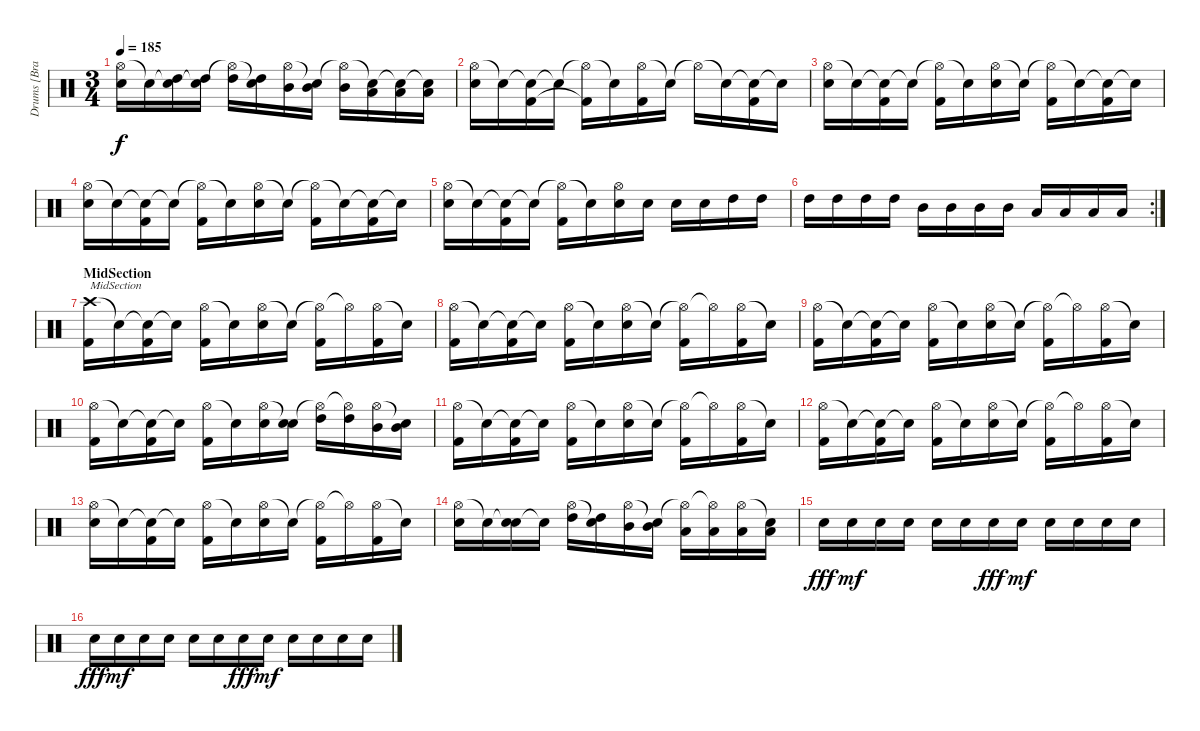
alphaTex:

\track ("Drums [Brann Dailor]" "Drums [Bra") {instrument percussion}
\staff {score}
\articulation defaults
\ts (3 4)
\tempo 185
\clef neutral
\ks c
("Hi-Hat (open)" "Electric Snare (hit)").16{dy f} "Snare (hit)"{t}.16 ("Snare (hit)"{t} "High Tom (hit)").16 ("Snare (hit)"{t} "High Tom (hit)").16 ("Hi-Hat (open)"{t} "High Tom (hit)").16 ("Snare (hit)"{t} "High Tom (hit)").16 ("Hi-Hat (open)" "Mid Tom (hit)").16 ("Snare (hit)"{t} "Mid Tom (hit)").16 ("Hi-Hat (open)"{t} "Mid Tom (hit)").16 ("Snare (hit)"{t} "Low Tom (hit)").16 ("Snare (hit)"{t} "Low Tom (hit)").16 ("Snare (hit)"{t} "Low Tom (hit)").16 |
("Hi-Hat (open)" "Electric Snare (hit)").16 "Snare (hit)"{t}.16 ("Snare (hit)"{t} "Kick (hit) 2").16 "Snare (hit)"{t}.16 ("Hi-Hat (open)"{t} "Kick (hit) 2"{t}).16 "Snare (hit)"{t}.16 ("Hi-Hat (open)" "Kick (hit) 2").16 "Snare (hit)"{t}.16 "Hi-Hat (open)"{t}.16 "Snare (hit)"{t}.16 ("Snare (hit)"{t} "Kick (hit) 2").16 "Snare (hit)"{t}.16 |
("Hi-Hat (open)" "Electric Snare (hit)").16 "Snare (hit)"{t}.16 ("Snare (hit)"{t} "Kick (hit) 2").16 "Snare (hit)"{t}.16 ("Hi-Hat (open)"{t} "Kick (hit) 2").16 "Snare (hit)"{t}.16 ("Hi-Hat (open)" "Electric Snare (hit)").16 "Snare (hit)"{t}.16 ("Hi-Hat (open)"{t} "Kick (hit) 2").16 "Snare (hit)"{t}.16 ("Snare (hit)"{t} "Kick (hit) 2").16 "Snare (hit)"{t}.16 |
("Hi-Hat (open)" "Electric Snare (hit)").16 "Snare (hit)"{t}.16 ("Snare (hit)"{t} "Kick (hit) 2").16 "Snare (hit)"{t}.16 ("Hi-Hat (open)"{t} "Kick (hit) 2").16 "Snare (hit)"{t}.16 ("Hi-Hat (open)" "Electric Snare (hit)").16 "Snare (hit)"{t}.16 ("Hi-Hat (open)"{t} "Kick (hit) 2").16 "Snare (hit)"{t}.16 ("Snare (hit)"{t} "Kick (hit) 2").16 "Snare (hit)"{t}.16 |
("Hi-Hat (open)" "Electric Snare (hit)").16 "Snare (hit)"{t}.16 ("Snare (hit)"{t} "Kick (hit) 2").16 "Snare (hit)"{t}.16 ("Hi-Hat (open)"{t} "Kick (hit) 2").16 "Snare (hit)"{t}.16 ("Hi-Hat (open)" "Electric Snare (hit)").16 "Electric Snare (hit)".16 "Electric Snare (hit)".16 "Electric Snare (hit)".16 "High Tom (hit)".16 "High Tom (hit)".16 |
\rc 2 "High Tom (hit)".16 "High Tom (hit)".16 "High Tom (hit)".16 "High Tom (hit)".16 "Mid Tom (hit)".16 "Mid Tom (hit)".16 "Mid Tom (hit)".16 "Mid Tom (hit)".16 "Low Tom (hit)".16 "Low Tom (hit)".16 "Low Tom (hit)".16 "Low Tom (hit)".16
|
\section ("" "MidSection")
("Crash high (hit)" "Kick (hit) 2").16{txt "MidSection"} "Snare (hit)"{t}.16 ("Snare (hit)"{t} "Kick (hit) 2").16 "Snare (hit)"{t}.16 ("Hi-Hat (open)" "Kick (hit) 2").16 "Snare (hit)"{t}.16 ("Hi-Hat (open)" "Electric Snare (hit)").16 "Snare (hit)"{t}.16 ("Hi-Hat (open)"{t} "Kick (hit) 2").16 "Hi-Hat (open)"{t}.16 ("Hi-Hat (open)" "Kick (hit) 2").16 "Snare (hit)"{t}.16 |
("Hi-Hat (open)" "Kick (hit) 2").16 "Snare (hit)"{t}.16 ("Snare (hit)"{t} "Kick (hit) 2").16 "Snare (hit)"{t}.16 ("Hi-Hat (open)" "Kick (hit) 2").16 "Snare (hit)"{t}.16 ("Hi-Hat (open)" "Electric Snare (hit)").16 "Snare (hit)"{t}.16 ("Hi-Hat (open)"{t} "Kick (hit) 2").16 "Hi-Hat (open)"{t}.16 ("Hi-Hat (open)" "Kick (hit) 2").16 "Snare (hit)"{t}.16 |
("Hi-Hat (open)" "Kick (hit) 2").16 "Snare (hit)"{t}.16 ("Snare (hit)"{t} "Kick (hit) 2").16 "Snare (hit)"{t}.16 ("Hi-Hat (open)" "Kick (hit) 2").16 "Snare (hit)"{t}.16 ("Hi-Hat (open)" "Electric Snare (hit)").16 "Snare (hit)"{t}.16 ("Hi-Hat (open)"{t} "Kick (hit) 2").16 "Hi-Hat (open)"{t}.16 ("Hi-Hat (open)" "Kick (hit) 2").16 "Snare (hit)"{t}.16 |
("Hi-Hat (open)" "Kick (hit) 2").16 "Snare (hit)"{t}.16 ("Snare (hit)"{t} "Kick (hit) 2").16 "Snare (hit)"{t}.16 ("Hi-Hat (open)" "Kick (hit) 2").16 "Snare (hit)"{t}.16 ("Hi-Hat (open)" "Electric Snare (hit)").16 ("Snare (hit)"{t} "Electric Snare (hit)").16 ("Hi-Hat (open)"{t} "High Tom (hit)").16 ("Hi-Hat (open)"{t} "High Tom (hit)").16 ("Hi-Hat (open)" "Mid Tom (hit)").16 ("Snare (hit)"{t} "Mid Tom (hit)").16 |
("Hi-Hat (open)" "Kick (hit) 2").16 "Snare (hit)"{t}.16 ("Snare (hit)"{t} "Kick (hit) 2").16 "Snare (hit)"{t}.16 ("Hi-Hat (open)" "Kick (hit) 2").16 "Snare (hit)"{t}.16 ("Hi-Hat (open)" "Electric Snare (hit)").16 "Snare (hit)"{t}.16 ("Hi-Hat (open)"{t} "Kick (hit) 2").16 "Hi-Hat (open)"{t}.16 ("Hi-Hat (open)" "Kick (hit) 2").16 "Snare (hit)"{t}.16 |
("Hi-Hat (open)" "Kick (hit) 2").16 "Snare (hit)"{t}.16 ("Snare (hit)"{t} "Kick (hit) 2").16 "Snare (hit)"{t}.16 ("Hi-Hat (open)" "Kick (hit) 2").16 "Snare (hit)"{t}.16 ("Hi-Hat (open)" "Electric Snare (hit)").16 "Snare (hit)"{t}.16 ("Hi-Hat (open)"{t} "Kick (hit) 2").16 "Hi-Hat (open)"{t}.16 ("Hi-Hat (open)" "Kick (hit) 2").16 "Snare (hit)"{t}.16 |
("Hi-Hat (open)" "Electric Snare (hit)").16 "Snare (hit)"{t}.16 ("Snare (hit)"{t} "Kick (hit) 2").16 "Snare (hit)"{t}.16 ("Hi-Hat (open)" "Kick (hit) 2").16 "Snare (hit)"{t}.16 ("Hi-Hat (open)" "Electric Snare (hit)").16 "Snare (hit)"{t}.16 ("Hi-Hat (open)"{t} "Kick (hit) 2").16 "Hi-Hat (open)"{t}.16 ("Hi-Hat (open)" "Kick (hit) 2").16 "Snare (hit)"{t}.16 |
("Hi-Hat (open)" "Electric Snare (hit)").16 "Snare (hit)"{t}.16 ("Snare (hit)"{t} "Electric Snare (hit)").16 "Snare (hit)"{t}.16 ("Hi-Hat (open)" "High Tom (hit)").16 ("Snare (hit)"{t} "High Tom (hit)").16 ("Hi-Hat (open)" "Mid Tom (hit)").16 ("Snare (hit)"{t} "Mid Tom (hit)").16 ("Hi-Hat (open)"{t} "Low Tom (hit)").16 ("Hi-Hat (open)"{t} "Low Tom (hit)").16 ("Hi-Hat (open)" "Low Tom (hit)").16 ("Snare (hit)"{t} "Low Tom (hit)").16 |
"Electric Snare (hit)".16{dy fff} "Electric Snare (hit)".16{dy mf} "Electric Snare (hit)".16 "Electric Snare (hit)".16 "Electric Snare (hit)".16 "Electric Snare (hit)".16 "Electric Snare (hit)".16{dy fff} "Electric Snare (hit)".16{dy mf} "Electric Snare (hit)".16 "Electric Snare (hit)".16 "Electric Snare (hit)".16 "Electric Snare (hit)".16 |
"Electric Snare (hit)".16{dy fff} "Electric Snare (hit)".16{dy mf} "Electric Snare (hit)".16 "Electric Snare (hit)".16 "Electric Snare (hit)".16 "Electric Snare (hit)".16 "Electric Snare (hit)".16{dy fff} "Electric Snare (hit)".16{dy mf} "Electric Snare (hit)".16 "Electric Snare (hit)".16 "Electric Snare (hit)".16 "Electric Snare (hit)".16
